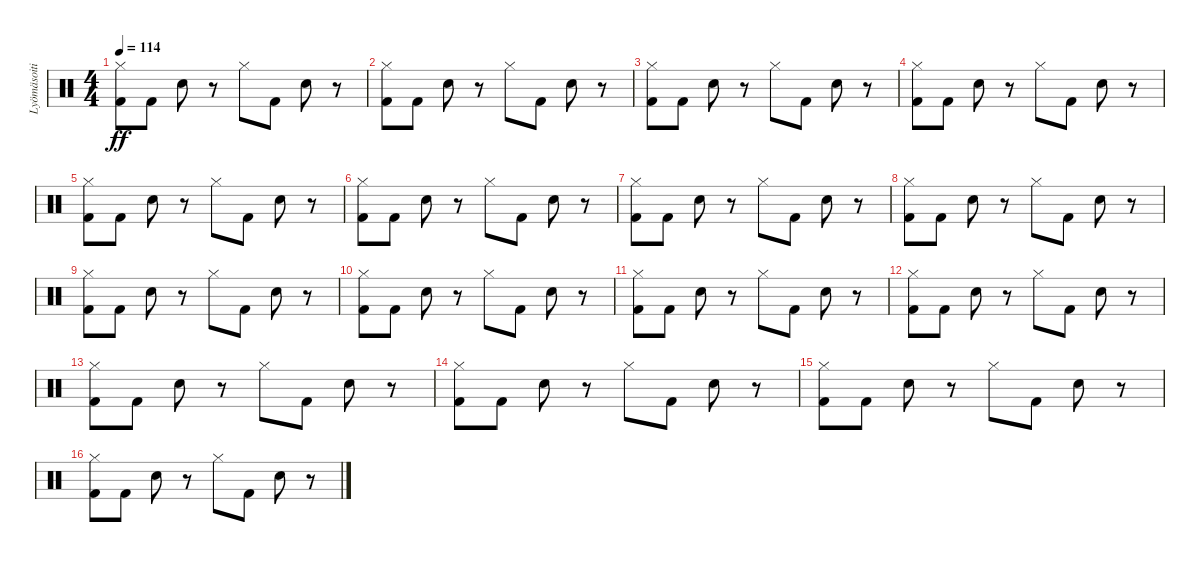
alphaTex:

\track ("Lyömäsoitin" "Lyömäsoiti") {instrument percussion}
\staff {score}
\articulation defaults
\ts (4 4)
\tempo 114
\clef neutral
\ks c
("Hi-Hat (closed)" "Kick (hit) 2").8{dy ff} "Kick (hit) 2".8 "Electric Snare (hit)".8 r.8 "Hi-Hat (closed)".8 "Kick (hit) 2".8 "Electric Snare (hit)".8 r.8 |
("Hi-Hat (closed)" "Kick (hit) 2").8 "Kick (hit) 2".8 "Electric Snare (hit)".8 r.8 "Hi-Hat (closed)".8 "Kick (hit) 2".8 "Electric Snare (hit)".8 r.8 |
("Hi-Hat (closed)" "Kick (hit) 2").8 "Kick (hit) 2".8 "Electric Snare (hit)".8 r.8 "Hi-Hat (closed)".8 "Kick (hit) 2".8 "Electric Snare (hit)".8 r.8 |
("Hi-Hat (closed)" "Kick (hit) 2").8 "Kick (hit) 2".8 "Electric Snare (hit)".8 r.8 "Hi-Hat (closed)".8 "Kick (hit) 2".8 "Electric Snare (hit)".8 r.8 |
("Hi-Hat (closed)" "Kick (hit) 2").8 "Kick (hit) 2".8 "Electric Snare (hit)".8 r.8 "Hi-Hat (closed)".8 "Kick (hit) 2".8 "Electric Snare (hit)".8 r.8 |
("Hi-Hat (closed)" "Kick (hit) 2").8 "Kick (hit) 2".8 "Electric Snare (hit)".8 r.8 "Hi-Hat (closed)".8 "Kick (hit) 2".8 "Electric Snare (hit)".8 r.8 |
("Hi-Hat (closed)" "Kick (hit) 2").8 "Kick (hit) 2".8 "Electric Snare (hit)".8 r.8 "Hi-Hat (closed)".8 "Kick (hit) 2".8 "Electric Snare (hit)".8 r.8 |
("Hi-Hat (closed)" "Kick (hit) 2").8 "Kick (hit) 2".8 "Electric Snare (hit)".8 r.8 "Hi-Hat (closed)".8 "Kick (hit) 2".8 "Electric Snare (hit)".8 r.8 |
("Hi-Hat (closed)" "Kick (hit) 2").8 "Kick (hit) 2".8 "Electric Snare (hit)".8 r.8 "Hi-Hat (closed)".8 "Kick (hit) 2".8 "Electric Snare (hit)".8 r.8 |
("Hi-Hat (closed)" "Kick (hit) 2").8 "Kick (hit) 2".8 "Electric Snare (hit)".8 r.8 "Hi-Hat (closed)".8 "Kick (hit) 2".8 "Electric Snare (hit)".8 r.8 |
("Hi-Hat (closed)" "Kick (hit) 2").8 "Kick (hit) 2".8 "Electric Snare (hit)".8 r.8 "Hi-Hat (closed)".8 "Kick (hit) 2".8 "Electric Snare (hit)".8 r.8 |
("Hi-Hat (closed)" "Kick (hit) 2").8 "Kick (hit) 2".8 "Electric Snare (hit)".8 r.8 "Hi-Hat (closed)".8 "Kick (hit) 2".8 "Electric Snare (hit)".8 r.8 |
("Hi-Hat (closed)" "Kick (hit) 2").8 "Kick (hit) 2".8 "Electric Snare (hit)".8 r.8 "Hi-Hat (closed)".8 "Kick (hit) 2".8 "Electric Snare (hit)".8 r.8 |
("Hi-Hat (closed)" "Kick (hit) 2").8 "Kick (hit) 2".8 "Electric Snare (hit)".8 r.8 "Hi-Hat (closed)".8 "Kick (hit) 2".8 "Electric Snare (hit)".8 r.8 |
("Hi-Hat (closed)" "Kick (hit) 2").8 "Kick (hit) 2".8 "Electric Snare (hit)".8 r.8 "Hi-Hat (closed)".8 "Kick (hit) 2".8 "Electric Snare (hit)".8 r.8 |
("Hi-Hat (closed)" "Kick (hit) 2").8 "Kick (hit) 2".8 "Electric Snare (hit)".8 r.8 "Hi-Hat (closed)".8 "Kick (hit) 2".8 "Electric Snare (hit)".8 r.8
